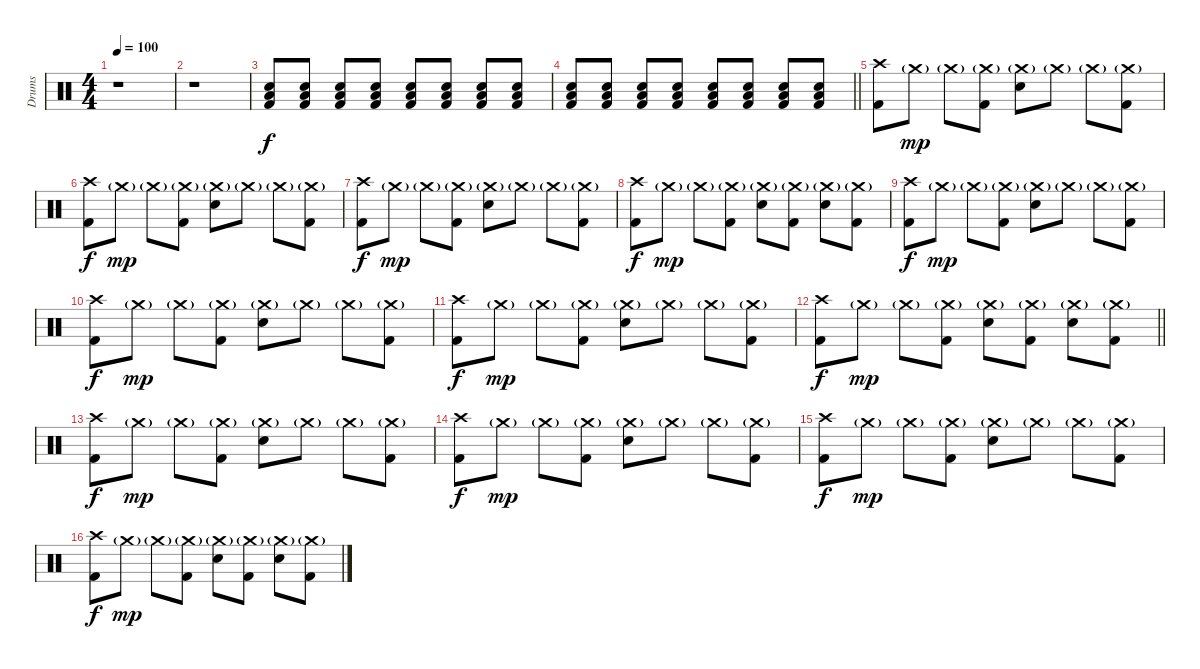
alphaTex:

\track ("Drums" "Drums") {instrument percussion}
\staff {score}
\articulation defaults
\ts (4 4)
\tempo 100
\clef neutral
\ks c
r.1{dy mp} |
r.1 |
("Electric Snare (hit)" "Low Tom (hit)" "Kick (hit) 2").8{dy f} ("Electric Snare (hit)" "Low Tom (hit)" "Kick (hit) 2").8 ("Electric Snare (hit)" "Low Tom (hit)" "Kick (hit) 2").8 ("Electric Snare (hit)" "Low Tom (hit)" "Kick (hit) 2").8 ("Electric Snare (hit)" "Low Tom (hit)" "Kick (hit) 2").8 ("Electric Snare (hit)" "Low Tom (hit)" "Kick (hit) 2").8 ("Electric Snare (hit)" "Low Tom (hit)" "Kick (hit) 2").8 ("Electric Snare (hit)" "Low Tom (hit)" "Kick (hit) 2").8 |
\barLineRight lightlight
("Electric Snare (hit)" "Low Tom (hit)" "Kick (hit) 2").8 ("Electric Snare (hit)" "Low Tom (hit)" "Kick (hit) 2").8 ("Electric Snare (hit)" "Low Tom (hit)" "Kick (hit) 2").8 ("Electric Snare (hit)" "Low Tom (hit)" "Kick (hit) 2").8 ("Electric Snare (hit)" "Low Tom (hit)" "Kick (hit) 2").8 ("Electric Snare (hit)" "Low Tom (hit)" "Kick (hit) 2").8 ("Electric Snare (hit)" "Low Tom (hit)" "Kick (hit) 2").8 ("Electric Snare (hit)" "Low Tom (hit)" "Kick (hit) 2").8 |
("Crash high (hit)" "Kick (hit) 2").8 "Crash medium (hit)"{g}.8{dy mp} "Crash medium (hit)"{g}.8 ("Crash medium (hit)"{g} "Kick (hit) 2").8 ("Crash medium (hit)"{g} "Electric Snare (hit)").8 "Crash medium (hit)"{g}.8 "Crash medium (hit)"{g}.8 ("Crash medium (hit)"{g} "Kick (hit) 2").8 |
("Crash high (hit)" "Kick (hit) 2").8{dy f} "Crash medium (hit)"{g}.8{dy mp} "Crash medium (hit)"{g}.8 ("Crash medium (hit)"{g} "Kick (hit) 2").8 ("Crash medium (hit)"{g} "Electric Snare (hit)").8 "Crash medium (hit)"{g}.8 "Crash medium (hit)"{g}.8 ("Crash medium (hit)"{g} "Kick (hit) 2").8 |
("Crash high (hit)" "Kick (hit) 2").8{dy f} "Crash medium (hit)"{g}.8{dy mp} "Crash medium (hit)"{g}.8 ("Crash medium (hit)"{g} "Kick (hit) 2").8 ("Crash medium (hit)"{g} "Electric Snare (hit)").8 "Crash medium (hit)"{g}.8 "Crash medium (hit)"{g}.8 ("Crash medium (hit)"{g} "Kick (hit) 2").8 |
("Crash high (hit)" "Kick (hit) 2").8{dy f} "Crash medium (hit)"{g}.8{dy mp} "Crash medium (hit)"{g}.8 ("Crash medium (hit)"{g} "Kick (hit) 2").8 ("Crash medium (hit)"{g} "Electric Snare (hit)").8 ("Crash medium (hit)"{g} "Kick (hit) 2").8 ("Crash medium (hit)"{g} "Electric Snare (hit)").8 ("Crash medium (hit)"{g} "Kick (hit) 2").8 |
("Crash high (hit)" "Kick (hit) 2").8{dy f} "Crash medium (hit)"{g}.8{dy mp} "Crash medium (hit)"{g}.8 ("Crash medium (hit)"{g} "Kick (hit) 2").8 ("Crash medium (hit)"{g} "Electric Snare (hit)").8 "Crash medium (hit)"{g}.8 "Crash medium (hit)"{g}.8 ("Crash medium (hit)"{g} "Kick (hit) 2").8 |
("Crash high (hit)" "Kick (hit) 2").8{dy f} "Crash medium (hit)"{g}.8{dy mp} "Crash medium (hit)"{g}.8 ("Crash medium (hit)"{g} "Kick (hit) 2").8 ("Crash medium (hit)"{g} "Electric Snare (hit)").8 "Crash medium (hit)"{g}.8 "Crash medium (hit)"{g}.8 ("Crash medium (hit)"{g} "Kick (hit) 2").8 |
("Crash high (hit)" "Kick (hit) 2").8{dy f} "Crash medium (hit)"{g}.8{dy mp} "Crash medium (hit)"{g}.8 ("Crash medium (hit)"{g} "Kick (hit) 2").8 ("Crash medium (hit)"{g} "Electric Snare (hit)").8 "Crash medium (hit)"{g}.8 "Crash medium (hit)"{g}.8 ("Crash medium (hit)"{g} "Kick (hit) 2").8 |
\barLineRight lightlight
("Crash high (hit)" "Kick (hit) 2").8{dy f} "Crash medium (hit)"{g}.8{dy mp} "Crash medium (hit)"{g}.8 ("Crash medium (hit)"{g} "Kick (hit) 2").8 ("Crash medium (hit)"{g} "Electric Snare (hit)").8 ("Crash medium (hit)"{g} "Kick (hit) 2").8 ("Crash medium (hit)"{g} "Electric Snare (hit)").8 ("Crash medium (hit)"{g} "Kick (hit) 2").8 |
("Crash high (hit)" "Kick (hit) 2").8{dy f} "Crash medium (hit)"{g}.8{dy mp} "Crash medium (hit)"{g}.8 ("Crash medium (hit)"{g} "Kick (hit) 2").8 ("Crash medium (hit)"{g} "Electric Snare (hit)").8 "Crash medium (hit)"{g}.8 "Crash medium (hit)"{g}.8 ("Crash medium (hit)"{g} "Kick (hit) 2").8 |
("Crash high (hit)" "Kick (hit) 2").8{dy f} "Crash medium (hit)"{g}.8{dy mp} "Crash medium (hit)"{g}.8 ("Crash medium (hit)"{g} "Kick (hit) 2").8 ("Crash medium (hit)"{g} "Electric Snare (hit)").8 "Crash medium (hit)"{g}.8 "Crash medium (hit)"{g}.8 ("Crash medium (hit)"{g} "Kick (hit) 2").8 |
("Crash high (hit)" "Kick (hit) 2").8{dy f} "Crash medium (hit)"{g}.8{dy mp} "Crash medium (hit)"{g}.8 ("Crash medium (hit)"{g} "Kick (hit) 2").8 ("Crash medium (hit)"{g} "Electric Snare (hit)").8 "Crash medium (hit)"{g}.8 "Crash medium (hit)"{g}.8 ("Crash medium (hit)"{g} "Kick (hit) 2").8 |
("Crash high (hit)" "Kick (hit) 2").8{dy f} "Crash medium (hit)"{g}.8{dy mp} "Crash medium (hit)"{g}.8 ("Crash medium (hit)"{g} "Kick (hit) 2").8 ("Crash medium (hit)"{g} "Electric Snare (hit)").8 ("Crash medium (hit)"{g} "Kick (hit) 2").8 ("Crash medium (hit)"{g} "Electric Snare (hit)").8 ("Crash medium (hit)"{g} "Kick (hit) 2").8
